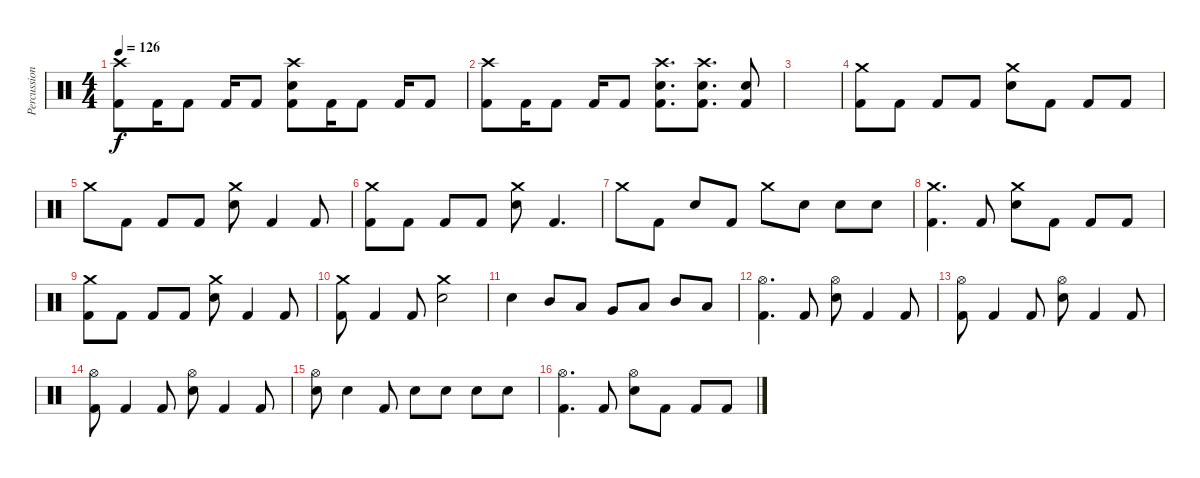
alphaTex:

\track ("Percussion" "Percussion") {instrument percussion}
\staff {score}
\articulation defaults
\ts (4 4)
\tempo 126
\clef neutral
\ks c
("Crash high (hit)" "Kick (hit) 2").8{dy f} "Kick (hit) 2".16 "Kick (hit) 2".8 "Kick (hit) 2".16 "Kick (hit) 2".8 ("Crash high (hit)" "Electric Snare (hit)" "Kick (hit) 2").8 "Kick (hit) 2".16 "Kick (hit) 2".8 "Kick (hit) 2".16 "Kick (hit) 2".8 |
("Crash high (hit)" "Kick (hit) 2").8 "Kick (hit) 2".16 "Kick (hit) 2".8 "Kick (hit) 2".16 "Kick (hit) 2".8 ("Crash high (hit)" "Electric Snare (hit)" "Kick (hit) 2").8{d} ("Crash high (hit)" "Electric Snare (hit)" "Kick (hit) 2").8{d} ("Electric Snare (hit)" "Kick (hit) 2").8 |
|
("Crash medium (hit)" "Kick (hit) 2").8 "Kick (hit) 2".8 "Kick (hit) 2".8 "Kick (hit) 2".8 ("Crash medium (hit)" "Electric Snare (hit)").8 "Kick (hit) 2".8 "Kick (hit) 2".8 "Kick (hit) 2".8 |
"Crash medium (hit)".8 "Kick (hit) 2".8 "Kick (hit) 2".8 "Kick (hit) 2".8 ("Crash medium (hit)" "Electric Snare (hit)").8 "Kick (hit) 2".4 "Kick (hit) 2".8 |
("Crash medium (hit)" "Kick (hit) 2").8 "Kick (hit) 2".8 "Kick (hit) 2".8 "Kick (hit) 2".8 ("Crash medium (hit)" "Electric Snare (hit)").8 "Kick (hit) 2".4{d} |
"Crash medium (hit)".8 "Kick (hit) 2".8 "Electric Snare (hit)".8 "Kick (hit) 2".8 "Crash medium (hit)".8 "Electric Snare (hit)".8 "Electric Snare (hit)".8 "Electric Snare (hit)".8 |
("Crash medium (hit)" "Kick (hit) 2").4{d} "Kick (hit) 2".8 ("Crash medium (hit)" "Electric Snare (hit)").8 "Kick (hit) 2".8 "Kick (hit) 2".8 "Kick (hit) 2".8 |
("Crash medium (hit)" "Kick (hit) 2").8 "Kick (hit) 2".8 "Kick (hit) 2".8 "Kick (hit) 2".8 ("Crash medium (hit)" "Electric Snare (hit)").8 "Kick (hit) 2".4 "Kick (hit) 2".8 |
("Crash medium (hit)" "Kick (hit) 2").8 "Kick (hit) 2".4 "Kick (hit) 2".8 ("Crash medium (hit)" "Electric Snare (hit)").2 |
"Electric Snare (hit)".4 "Mid Tom (hit)".8 "Low Tom (hit)".8 "Very Low Tom (hit)".8 "Low Floor Tom (hit)".8 "Mid Tom (hit)".8 "Low Tom (hit)".8 |
("Hi-Hat (open)" "Kick (hit) 2").4{d} "Kick (hit) 2".8 ("Hi-Hat (open)" "Electric Snare (hit)").8 "Kick (hit) 2".4 "Kick (hit) 2".8 |
("Hi-Hat (open)" "Kick (hit) 2").8 "Kick (hit) 2".4 "Kick (hit) 2".8 ("Hi-Hat (open)" "Electric Snare (hit)").8 "Kick (hit) 2".4 "Kick (hit) 2".8 |
("Hi-Hat (open)" "Kick (hit) 2").8 "Kick (hit) 2".4 "Kick (hit) 2".8 ("Hi-Hat (open)" "Electric Snare (hit)").8 "Kick (hit) 2".4 "Kick (hit) 2".8 |
("Hi-Hat (open)" "Electric Snare (hit)").8 "Electric Snare (hit)".4 "Kick (hit) 2".8 "Electric Snare (hit)".8 "Electric Snare (hit)".8 "Electric Snare (hit)".8 "Electric Snare (hit)".8 |
("Hi-Hat (open)" "Kick (hit) 2").4{d} "Kick (hit) 2".8 ("Hi-Hat (open)" "Electric Snare (hit)").8 "Kick (hit) 2".8 "Kick (hit) 2".8 "Kick (hit) 2".8
